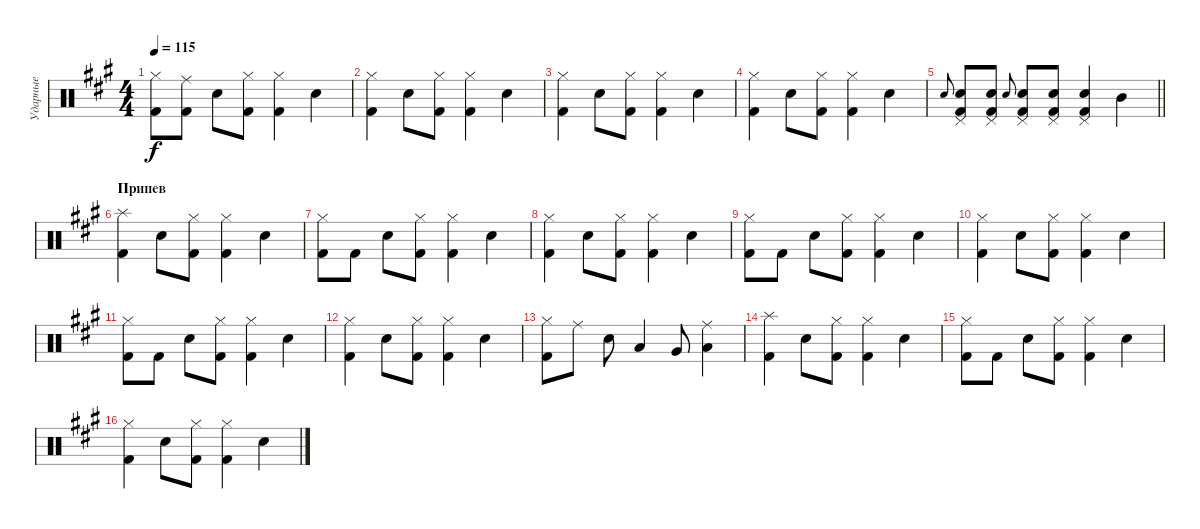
\track ("Ударные" "Ударные") {instrument percussion}
\staff {score}
\articulation defaults
\ts (4 4)
\tempo 115
\clef neutral
\ks f#minor
("Hi-Hat (closed)" "Kick (hit) 2").8{dy f} ("Ride (middle)" "Kick (hit) 2").8 "Snare (hit) 2".8 ("Hi-Hat (closed)" "Kick (hit) 2").8{volume 12} ("Hi-Hat (closed)" "Kick (hit) 2").4{volume 11} "Snare (hit) 2".4 |
("Hi-Hat (closed)" "Kick (hit) 2").4 "Snare (hit) 2".8 ("Hi-Hat (closed)" "Kick (hit) 2").8{volume 12} ("Hi-Hat (closed)" "Kick (hit) 2").4{volume 11} "Snare (hit) 2".4 |
("Hi-Hat (closed)" "Kick (hit) 2").4 "Snare (hit) 2".8 ("Hi-Hat (closed)" "Kick (hit) 2").8{volume 12} ("Hi-Hat (closed)" "Kick (hit) 2").4{volume 11} "Snare (hit) 2".4 |
("Hi-Hat (closed)" "Kick (hit) 2").4 "Snare (hit) 2".8 ("Hi-Hat (closed)" "Kick (hit) 2").8{volume 12} ("Hi-Hat (closed)" "Kick (hit) 2").4{volume 11} "Snare (hit) 2".4 |
\barLineRight lightlight "Electric Snare (hit)".8{gr onbeat}
("Pedal Hi-Hat (hit)" "Kick (hit) 2" "Electric Snare (hit)").8{volume 16} ("Pedal Hi-Hat (hit)" "Electric Snare (hit)" "Kick (hit) 2").8{volume 16} "Electric Snare (hit)".8{gr onbeat} ("Pedal Hi-Hat (hit)" "Kick (hit) 2" "Electric Snare (hit)").8 ("Pedal Hi-Hat (hit)" "Electric Snare (hit)" "Kick (hit) 2").8 ("Pedal Hi-Hat (hit)" "Kick (hit) 2" "Electric Snare (hit)").4 "Mid Tom (hit)".4 |
\section ("" "Припев")
("Splash (hit)" "Kick (hit) 2").4 "Snare (hit) 2".8 ("Hi-Hat (closed)" "Kick (hit) 2").8{volume 12} ("Hi-Hat (closed)" "Kick (hit) 2").4{volume 11} "Snare (hit) 2".4 |
("Hi-Hat (closed)" "Kick (hit) 2").8 "Kick (hit) 2".8 "Snare (hit) 2".8 ("Hi-Hat (closed)" "Kick (hit) 2").8{volume 12} ("Hi-Hat (closed)" "Kick (hit) 2").4{volume 11} "Snare (hit) 2".4 |
("Hi-Hat (closed)" "Kick (hit) 2").4 "Snare (hit) 2".8 ("Hi-Hat (closed)" "Kick (hit) 2").8{volume 12} ("Hi-Hat (closed)" "Kick (hit) 2").4{volume 11} "Snare (hit) 2".4 |
("Hi-Hat (closed)" "Kick (hit) 2").8 "Kick (hit) 2".8 "Snare (hit) 2".8 ("Hi-Hat (closed)" "Kick (hit) 2").8{volume 12} ("Hi-Hat (closed)" "Kick (hit) 2").4{volume 11} "Snare (hit) 2".4 |
("Hi-Hat (closed)" "Kick (hit) 2").4 "Snare (hit) 2".8 ("Hi-Hat (closed)" "Kick (hit) 2").8{volume 12} ("Hi-Hat (closed)" "Kick (hit) 2").4{volume 11} "Snare (hit) 2".4 |
("Hi-Hat (closed)" "Kick (hit) 2").8 "Kick (hit) 2".8 "Snare (hit) 2".8 ("Hi-Hat (closed)" "Kick (hit) 2").8{volume 12} ("Hi-Hat (closed)" "Kick (hit) 2").4{volume 11} "Snare (hit) 2".4 |
("Hi-Hat (closed)" "Kick (hit) 2").4 "Snare (hit) 2".8 ("Hi-Hat (closed)" "Kick (hit) 2").8{volume 12} ("Hi-Hat (closed)" "Kick (hit) 2").4{volume 11} "Snare (hit) 2".4 |
("Hi-Hat (closed)" "Kick (hit) 2").8 "Ride (middle)".8 "Snare (hit) 2".8 "Low Tom (hit)".4{volume 12} "Very Low Tom (hit)".8{volume 11} ("Ride (middle)" "Low Floor Tom (hit)").4 |
("Splash (hit)" "Kick (hit) 2").4 "Snare (hit) 2".8 ("Hi-Hat (closed)" "Kick (hit) 2").8{volume 12} ("Hi-Hat (closed)" "Kick (hit) 2").4{volume 11} "Snare (hit) 2".4 |
("Hi-Hat (closed)" "Kick (hit) 2").8 "Kick (hit) 2".8 "Snare (hit) 2".8 ("Hi-Hat (closed)" "Kick (hit) 2").8{volume 12} ("Hi-Hat (closed)" "Kick (hit) 2").4{volume 11} "Snare (hit) 2".4 |
("Hi-Hat (closed)" "Kick (hit) 2").4 "Snare (hit) 2".8 ("Hi-Hat (closed)" "Kick (hit) 2").8{volume 12} ("Hi-Hat (closed)" "Kick (hit) 2").4{volume 11} "Snare (hit) 2".4
